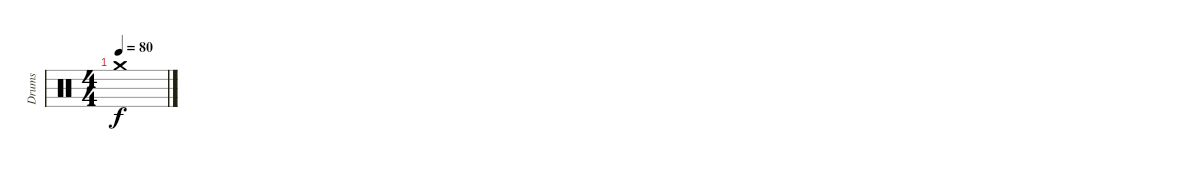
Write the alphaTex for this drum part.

\track ("Drums" "Drums") {instrument percussion}
\staff {score}
\articulation defaults
\ts (4 4)
\tempo 80
\clef neutral
\ks c "Crash medium (hit)".1{dy f}
